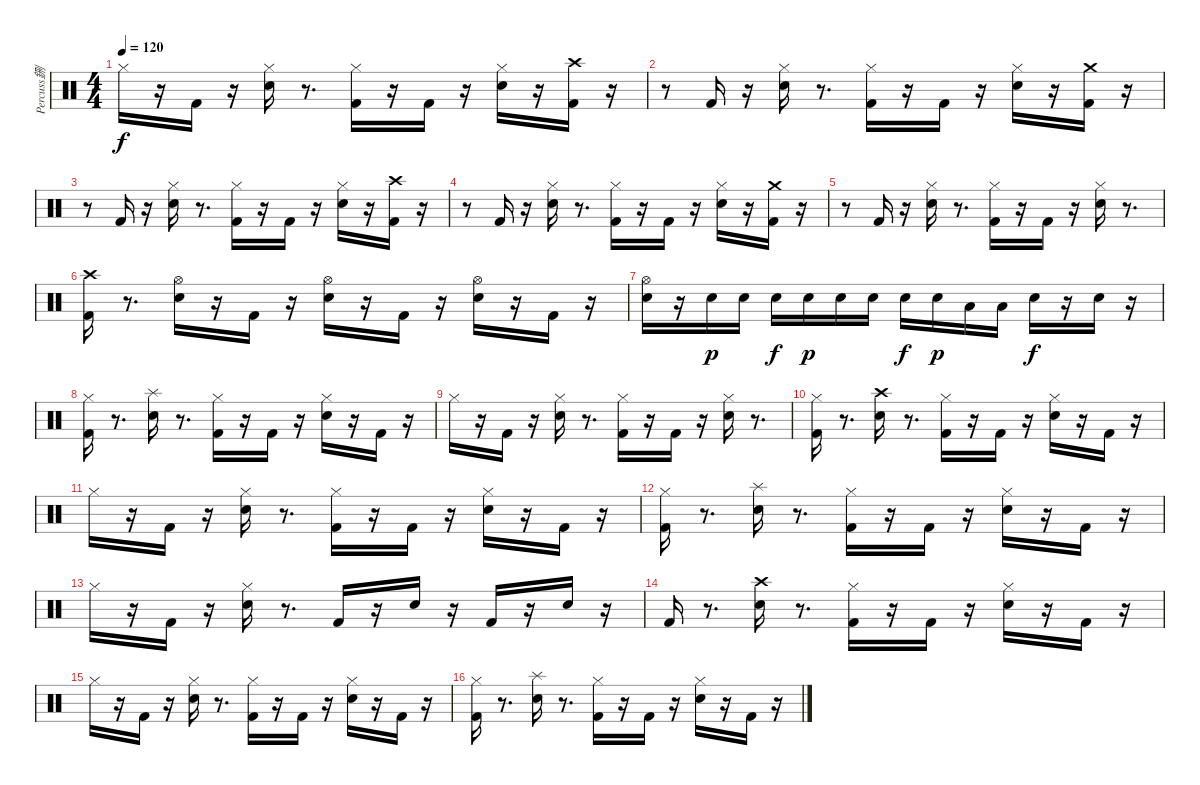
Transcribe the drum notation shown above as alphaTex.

\track ("Percuss鉶" "Percuss鉶") {instrument percussion}
\staff {score}
\articulation defaults
\ts (4 4)
\tempo 120
\clef neutral
\ks c "Hi-Hat (closed)".16{dy f}
r.16 "Kick (hit) 2".16 r.16 ("Hi-Hat (closed)" "Snare (hit) 2").16 r.8{d} ("Hi-Hat (closed)" "Kick (hit) 2").16 r.16 "Kick (hit) 2".16 r.16 ("Hi-Hat (closed)" "Snare (hit) 2").16 r.16 ("Kick (hit) 2" "Crash high (hit)").16 r.16 |
r.8 "Kick (hit) 2".16 r.16 ("Hi-Hat (closed)" "Snare (hit) 2").16 r.8{d} ("Hi-Hat (closed)" "Kick (hit) 2").16 r.16 "Kick (hit) 2".16 r.16 ("Hi-Hat (closed)" "Snare (hit) 2").16 r.16 ("Kick (hit) 2" "Crash medium (hit)").16 r.16 |
r.8 "Kick (hit) 2".16 r.16 ("Hi-Hat (closed)" "Snare (hit) 2").16 r.8{d} ("Hi-Hat (closed)" "Kick (hit) 2").16 r.16 "Kick (hit) 2".16 r.16 ("Hi-Hat (closed)" "Snare (hit) 2").16 r.16 ("Kick (hit) 2" "Crash high (hit)").16 r.16 |
r.8 "Kick (hit) 2".16 r.16 ("Hi-Hat (closed)" "Snare (hit) 2").16 r.8{d} ("Hi-Hat (closed)" "Kick (hit) 2").16 r.16 "Kick (hit) 2".16 r.16 ("Hi-Hat (closed)" "Snare (hit) 2").16 r.16 ("Crash medium (hit)" "Kick (hit) 2").16 r.16 |
r.8 "Kick (hit) 2".16 r.16 ("Hi-Hat (closed)" "Snare (hit) 2").16 r.8{d} ("Hi-Hat (closed)" "Kick (hit) 2").16 r.16 "Kick (hit) 2".16 r.16 ("Hi-Hat (closed)" "Snare (hit) 2").16 r.8{d} |
("Crash high (hit)" "Kick (hit) 2").16 r.8{d} ("Hi-Hat (open)" "Snare (hit) 2").16 r.16 "Kick (hit) 2".16 r.16 ("Snare (hit) 2" "Hi-Hat (open)").16 r.16 "Kick (hit) 2".16 r.16 ("Hi-Hat (open)" "Snare (hit) 2").16 r.16 "Kick (hit) 2".16 r.16 |
("Snare (hit) 2" "Hi-Hat (open)").16 r.16 "Snare (hit) 2".16{dy p} "Snare (hit) 2".16 "Snare (hit) 2".16{dy f} "Snare (hit) 2".16{dy p} "Snare (hit) 2".16 "Snare (hit) 2".16 "Snare (hit) 2".16{dy f} "Snare (hit) 2".16{dy p} "Low Tom (hit)".16 "Low Tom (hit)".16 "Snare (hit) 2".16{dy f} r.16 "Snare (hit) 2".16 r.16 |
("Hi-Hat (closed)" "Kick (hit) 2").16 r.8{d} ("Splash (hit)" "Snare (hit) 2").16 r.8{d} ("Hi-Hat (closed)" "Kick (hit) 2").16 r.16 "Kick (hit) 2".16 r.16 ("Hi-Hat (closed)" "Snare (hit) 2").16 r.16 "Kick (hit) 2".16 r.16 |
"Hi-Hat (closed)".16 r.16 "Kick (hit) 2".16 r.16 ("Hi-Hat (closed)" "Snare (hit) 2").16 r.8{d} ("Hi-Hat (closed)" "Kick (hit) 2").16 r.16 "Kick (hit) 2".16 r.16 ("Hi-Hat (closed)" "Snare (hit) 2").16 r.8{d} |
("Hi-Hat (closed)" "Kick (hit) 2").16 r.8{d} ("Crash high (hit)" "Snare (hit) 2").16 r.8{d} ("Hi-Hat (closed)" "Kick (hit) 2").16 r.16 "Kick (hit) 2".16 r.16 ("Hi-Hat (closed)" "Snare (hit) 2").16 r.16 "Kick (hit) 2".16 r.16 |
"Hi-Hat (closed)".16 r.16 "Kick (hit) 2".16 r.16 ("Hi-Hat (closed)" "Snare (hit) 2").16 r.8{d} ("Hi-Hat (closed)" "Kick (hit) 2").16 r.16 "Kick (hit) 2".16 r.16 ("Hi-Hat (closed)" "Snare (hit) 2").16 r.16 "Kick (hit) 2".16 r.16 |
("Hi-Hat (closed)" "Kick (hit) 2").16 r.8{d} ("Splash (hit)" "Snare (hit) 2").16 r.8{d} ("Hi-Hat (closed)" "Kick (hit) 2").16 r.16 "Kick (hit) 2".16 r.16 ("Hi-Hat (closed)" "Snare (hit) 2").16 r.16 "Kick (hit) 2".16 r.16 |
"Hi-Hat (closed)".16 r.16 "Kick (hit) 2".16 r.16 ("Hi-Hat (closed)" "Snare (hit) 2").16 r.8{d} "Kick (hit) 2".16 r.16 "Snare (hit) 2".16 r.16 "Kick (hit) 2".16 r.16 "Snare (hit) 2".16 r.16 |
"Kick (hit) 2".16 r.8{d} ("Crash high (hit)" "Snare (hit) 2").16 r.8{d} ("Hi-Hat (closed)" "Kick (hit) 2").16 r.16 "Kick (hit) 2".16 r.16 ("Hi-Hat (closed)" "Snare (hit) 2").16 r.16 "Kick (hit) 2".16 r.16 |
"Hi-Hat (closed)".16 r.16 "Kick (hit) 2".16 r.16 ("Hi-Hat (closed)" "Snare (hit) 2").16 r.8{d} ("Hi-Hat (closed)" "Kick (hit) 2").16 r.16 "Kick (hit) 2".16 r.16 ("Hi-Hat (closed)" "Snare (hit) 2").16 r.16 "Kick (hit) 2".16 r.16 |
("Hi-Hat (closed)" "Kick (hit) 2").16 r.8{d} ("Splash (hit)" "Snare (hit) 2").16 r.8{d} ("Hi-Hat (closed)" "Kick (hit) 2").16 r.16 "Kick (hit) 2".16 r.16 ("Hi-Hat (closed)" "Snare (hit) 2").16 r.16 "Kick (hit) 2".16 r.16
